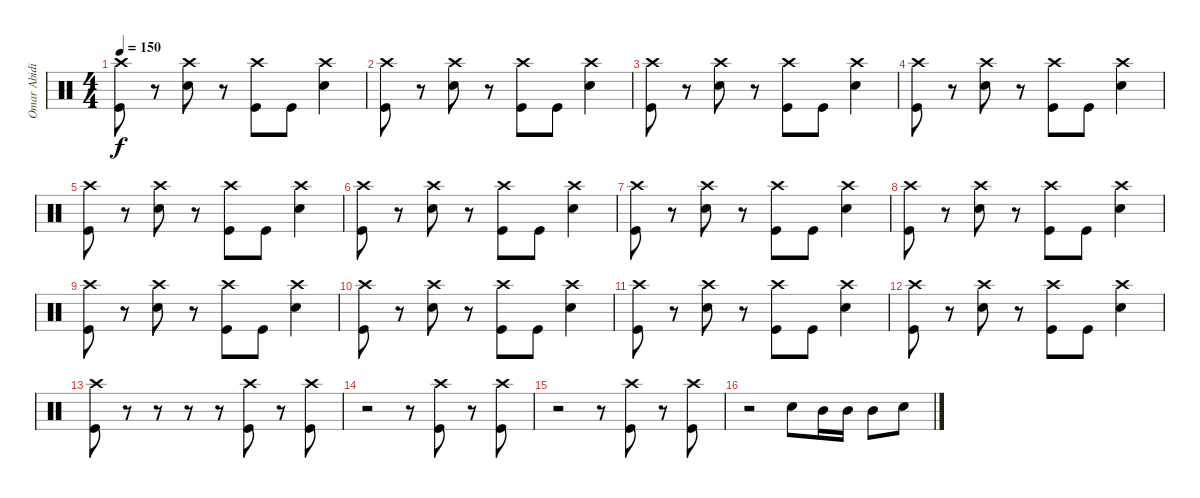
\track ("Omar Abidi" "Omar Abidi") {instrument percussion}
\staff {score}
\articulation defaults
\ts (4 4)
\tempo 150
\clef neutral
\ks c
("Crash high (hit)" "Kick (hit)").8{dy f} r.8 ("Crash high (hit)" "Snare (hit) 2").8 r.8 ("Crash high (hit)" "Kick (hit)").8 "Kick (hit)".8 ("Crash high (hit)" "Snare (hit) 2").4 |
("Crash high (hit)" "Kick (hit)").8 r.8 ("Crash high (hit)" "Snare (hit) 2").8 r.8 ("Crash high (hit)" "Kick (hit)").8 "Kick (hit)".8 ("Crash high (hit)" "Snare (hit) 2").4 |
("Crash high (hit)" "Kick (hit)").8 r.8 ("Crash high (hit)" "Snare (hit) 2").8 r.8 ("Crash high (hit)" "Kick (hit)").8 "Kick (hit)".8 ("Crash high (hit)" "Snare (hit) 2").4 |
("Crash high (hit)" "Kick (hit)").8 r.8 ("Crash high (hit)" "Snare (hit) 2").8 r.8 ("Crash high (hit)" "Kick (hit)").8 "Kick (hit)".8 ("Crash high (hit)" "Snare (hit) 2").4 |
("Crash high (hit)" "Kick (hit)").8 r.8 ("Crash high (hit)" "Snare (hit) 2").8 r.8 ("Crash high (hit)" "Kick (hit)").8 "Kick (hit)".8 ("Crash high (hit)" "Snare (hit) 2").4 |
("Crash high (hit)" "Kick (hit)").8 r.8 ("Crash high (hit)" "Snare (hit) 2").8 r.8 ("Crash high (hit)" "Kick (hit)").8 "Kick (hit)".8 ("Crash high (hit)" "Snare (hit) 2").4 |
("Crash high (hit)" "Kick (hit)").8 r.8 ("Crash high (hit)" "Snare (hit) 2").8 r.8 ("Crash high (hit)" "Kick (hit)").8 "Kick (hit)".8 ("Crash high (hit)" "Snare (hit) 2").4 |
("Crash high (hit)" "Kick (hit)").8 r.8 ("Crash high (hit)" "Snare (hit) 2").8 r.8 ("Crash high (hit)" "Kick (hit)").8 "Kick (hit)".8 ("Crash high (hit)" "Snare (hit) 2").4 |
("Crash high (hit)" "Kick (hit)").8 r.8 ("Crash high (hit)" "Snare (hit) 2").8 r.8 ("Crash high (hit)" "Kick (hit)").8 "Kick (hit)".8 ("Crash high (hit)" "Snare (hit) 2").4 |
("Crash high (hit)" "Kick (hit)").8 r.8 ("Crash high (hit)" "Snare (hit) 2").8 r.8 ("Crash high (hit)" "Kick (hit)").8 "Kick (hit)".8 ("Crash high (hit)" "Snare (hit) 2").4 |
("Crash high (hit)" "Kick (hit)").8 r.8 ("Crash high (hit)" "Snare (hit) 2").8 r.8 ("Crash high (hit)" "Kick (hit)").8 "Kick (hit)".8 ("Crash high (hit)" "Snare (hit) 2").4 |
("Crash high (hit)" "Kick (hit)").8 r.8 ("Crash high (hit)" "Snare (hit) 2").8 r.8 ("Crash high (hit)" "Kick (hit)").8 "Kick (hit)".8 ("Crash high (hit)" "Snare (hit) 2").4 |
("Crash high (hit)" "Kick (hit)").8 r.8 r.8 r.8 r.8 ("Crash high (hit)" "Kick (hit)").8 r.8 ("Crash high (hit)" "Kick (hit)").8 |
r.2 r.8 ("Crash high (hit)" "Kick (hit)").8 r.8 ("Crash high (hit)" "Kick (hit)").8 |
r.2 r.8 ("Crash high (hit)" "Kick (hit)").8 r.8 ("Crash high (hit)" "Kick (hit)").8 |
r.2 "Snare (hit) 2".8 "Mid Tom (hit)".16 "Mid Tom (hit)".16 "Mid Tom (hit)".8 "Snare (hit) 2".8
